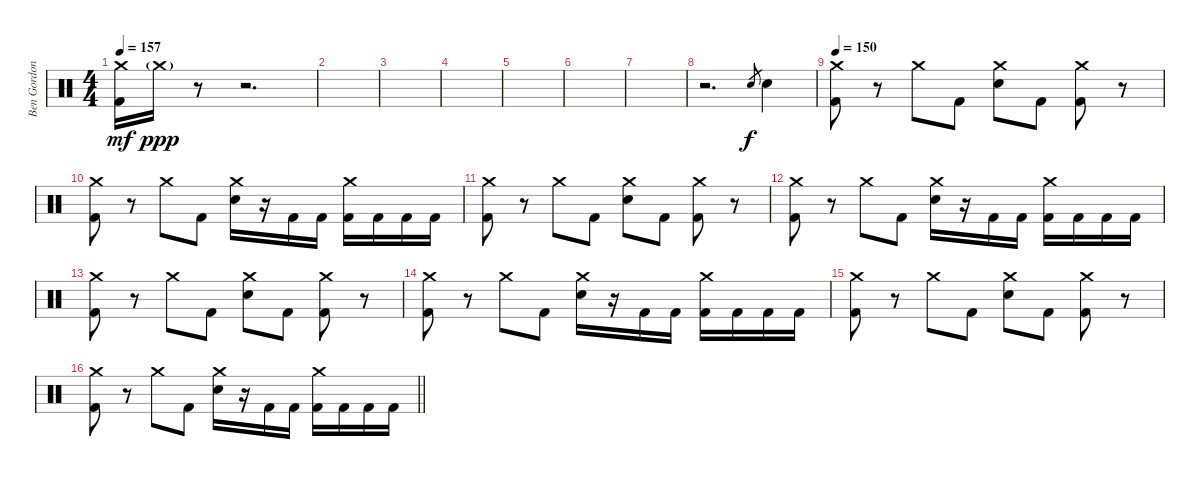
\track ("Ben Gordon" "Ben Gordon") {instrument percussion}
\staff {score}
\articulation defaults
\ts (4 4)
\tempo 157
\clef neutral
\ks c
("Crash medium (hit)" "Kick (hit) 2").16{dy mf} "Crash medium (hit)"{g}.16{dy ppp} r.8 r.2{d} |
|
|
|
|
|
|
r.2{d} "Electric Snare (hit)".8{gr dy f} "Electric Snare (hit)".4 |
\tempo 150
("Crash medium (hit)" "Kick (hit) 2").8 r.8 "Crash medium (hit)".8 "Kick (hit) 2".8 ("Crash medium (hit)" "Electric Snare (hit)").8 "Kick (hit) 2".8 ("Crash medium (hit)" "Kick (hit) 2").8 r.8 |
("Crash medium (hit)" "Kick (hit) 2").8 r.8 "Crash medium (hit)".8 "Kick (hit) 2".8 ("Crash medium (hit)" "Electric Snare (hit)").16 r.16 "Kick (hit) 2".16 "Kick (hit) 2".16 ("Crash medium (hit)" "Kick (hit) 2").16 "Kick (hit) 2".16 "Kick (hit) 2".16 "Kick (hit) 2".16 |
("Crash medium (hit)" "Kick (hit) 2").8 r.8 "Crash medium (hit)".8 "Kick (hit) 2".8 ("Crash medium (hit)" "Electric Snare (hit)").8 "Kick (hit) 2".8 ("Crash medium (hit)" "Kick (hit) 2").8 r.8 |
("Crash medium (hit)" "Kick (hit) 2").8 r.8 "Crash medium (hit)".8 "Kick (hit) 2".8 ("Crash medium (hit)" "Electric Snare (hit)").16 r.16 "Kick (hit) 2".16 "Kick (hit) 2".16 ("Crash medium (hit)" "Kick (hit) 2").16 "Kick (hit) 2".16 "Kick (hit) 2".16 "Kick (hit) 2".16 |
("Crash medium (hit)" "Kick (hit) 2").8 r.8 "Crash medium (hit)".8 "Kick (hit) 2".8 ("Crash medium (hit)" "Electric Snare (hit)").8 "Kick (hit) 2".8 ("Crash medium (hit)" "Kick (hit) 2").8 r.8 |
("Crash medium (hit)" "Kick (hit) 2").8 r.8 "Crash medium (hit)".8 "Kick (hit) 2".8 ("Crash medium (hit)" "Electric Snare (hit)").16 r.16 "Kick (hit) 2".16 "Kick (hit) 2".16 ("Crash medium (hit)" "Kick (hit) 2").16 "Kick (hit) 2".16 "Kick (hit) 2".16 "Kick (hit) 2".16 |
("Crash medium (hit)" "Kick (hit) 2").8 r.8 "Crash medium (hit)".8 "Kick (hit) 2".8 ("Crash medium (hit)" "Electric Snare (hit)").8 "Kick (hit) 2".8 ("Crash medium (hit)" "Kick (hit) 2").8 r.8 |
\barLineRight lightlight
("Crash medium (hit)" "Kick (hit) 2").8 r.8 "Crash medium (hit)".8 "Kick (hit) 2".8 ("Crash medium (hit)" "Electric Snare (hit)").16 r.16 "Kick (hit) 2".16 "Kick (hit) 2".16 ("Crash medium (hit)" "Kick (hit) 2").16 "Kick (hit) 2".16 "Kick (hit) 2".16 "Kick (hit) 2".16
